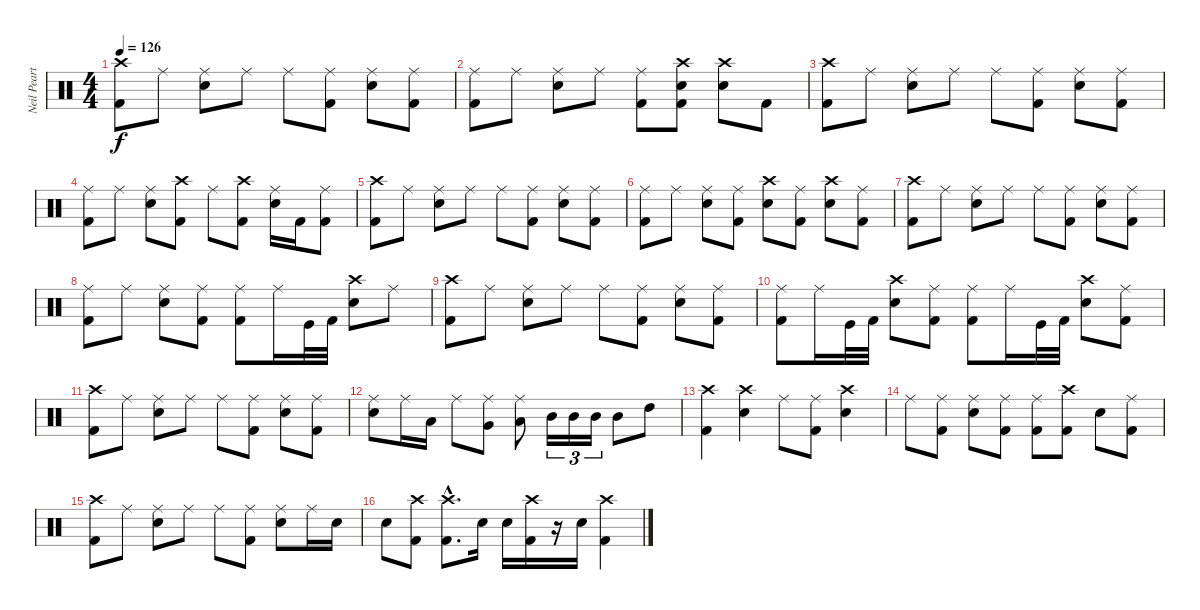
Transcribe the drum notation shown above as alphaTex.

\track ("Neil Peart" "Neil Peart") {instrument percussion}
\staff {score}
\articulation defaults
\ts (4 4)
\tempo 126
\clef neutral
\ks c
("Crash high (hit)" "Kick (hit) 2").8{dy f} "Ride (middle)".8 ("Electric Snare (hit)" "Ride (middle)").8 "Ride (middle)".8 "Ride (middle)".8 ("Ride (middle)" "Kick (hit) 2").8 ("Electric Snare (hit)" "Ride (middle)").8 ("Ride (middle)" "Kick (hit) 2").8 |
("Ride (middle)" "Kick (hit) 2").8 "Ride (middle)".8 ("Electric Snare (hit)" "Ride (middle)").8 "Ride (middle)".8 ("Ride (middle)" "Kick (hit) 2").8 ("Electric Snare (hit)" "Crash high (hit)" "Kick (hit) 2").8 ("Electric Snare (hit)" "Crash high (hit)").8 "Kick (hit) 2".8 |
("Crash high (hit)" "Kick (hit) 2").8 "Ride (middle)".8 ("Electric Snare (hit)" "Ride (middle)").8 "Ride (middle)".8 "Ride (middle)".8 ("Ride (middle)" "Kick (hit) 2").8 ("Electric Snare (hit)" "Ride (middle)").8 ("Ride (middle)" "Kick (hit) 2").8 |
("Ride (middle)" "Kick (hit) 2").8 "Ride (middle)".8 ("Electric Snare (hit)" "Ride (middle)").8 ("Crash high (hit)" "Kick (hit) 2").8 "Ride (middle)".8 ("Crash high (hit)" "Kick (hit) 2").8 ("Electric Snare (hit)" "Ride (middle)").16 "Kick (hit) 2".16 ("Ride (middle)" "Kick (hit) 2").8 |
("Crash high (hit)" "Kick (hit) 2").8 "Ride (middle)".8 ("Electric Snare (hit)" "Ride (middle)").8 "Ride (middle)".8 "Ride (middle)".8 ("Ride (middle)" "Kick (hit) 2").8 ("Electric Snare (hit)" "Ride (middle)").8 ("Ride (middle)" "Kick (hit) 2").8 |
("Ride (middle)" "Kick (hit) 2").8 "Ride (middle)".8 ("Electric Snare (hit)" "Ride (middle)").8 ("Ride (middle)" "Kick (hit) 2").8 ("Electric Snare (hit)" "Crash high (hit)").8 ("Ride (middle)" "Kick (hit) 2").8 ("Electric Snare (hit)" "Crash high (hit)").8 ("Ride (middle)" "Kick (hit) 2").8 |
("Crash high (hit)" "Kick (hit) 2").8 "Ride (middle)".8 ("Electric Snare (hit)" "Ride (middle)").8 "Ride (middle)".8 "Ride (middle)".8 ("Ride (middle)" "Kick (hit) 2").8 ("Electric Snare (hit)" "Ride (middle)").8 ("Ride (middle)" "Kick (hit) 2").8 |
("Ride (middle)" "Kick (hit) 2").8 "Ride (middle)".8 ("Electric Snare (hit)" "Ride (middle)").8 ("Ride (middle)" "Kick (hit) 2").8 ("Ride (middle)" "Kick (hit) 2").8 "Ride (middle)".16 "Kick (hit)".32 "Kick (hit) 2".32 ("Electric Snare (hit)" "Crash high (hit)").8 "Ride (middle)".8 |
("Crash high (hit)" "Kick (hit) 2").8 "Ride (middle)".8 ("Electric Snare (hit)" "Ride (middle)").8 "Ride (middle)".8 "Ride (middle)".8 ("Ride (middle)" "Kick (hit) 2").8 ("Electric Snare (hit)" "Ride (middle)").8 ("Ride (middle)" "Kick (hit) 2").8 |
("Ride (middle)" "Kick (hit) 2").8 "Ride (middle)".16 "Kick (hit)".32 "Kick (hit) 2".32 ("Electric Snare (hit)" "Crash high (hit)").8 ("Ride (middle)" "Kick (hit) 2").8 ("Ride (middle)" "Kick (hit) 2").8 "Ride (middle)".16 "Kick (hit)".32 "Kick (hit) 2".32 ("Electric Snare (hit)" "Crash high (hit)").8 ("Ride (middle)" "Kick (hit) 2").8 |
("Crash high (hit)" "Kick (hit) 2").8 "Ride (middle)".8 ("Electric Snare (hit)" "Ride (middle)").8 "Ride (middle)".8 "Ride (middle)".8 ("Ride (middle)" "Kick (hit) 2").8 ("Electric Snare (hit)" "Ride (middle)").8 ("Ride (middle)" "Kick (hit) 2").8 |
("Electric Snare (hit)" "Ride (middle)").8 "Ride (middle)".16 "Low Floor Tom (hit)".16 "Ride (middle)".8 ("Ride (middle)" "Very Low Tom (hit)").8 ("Ride (middle)" "Low Tom (hit)").8 "Mid Tom (hit)".16{tu (3 2)} "Mid Tom (hit)".16{tu (3 2)} "Mid Tom (hit)".16{tu (3 2)} "Mid Tom (hit)".8 "High Tom (hit)".8 |
("Crash high (hit)" "Kick (hit) 2").4 ("Electric Snare (hit)" "Crash high (hit)").4 "Ride (middle)".8 ("Ride (middle)" "Kick (hit) 2").8 ("Electric Snare (hit)" "Crash high (hit)").4 |
"Ride (middle)".8 ("Ride (middle)" "Kick (hit) 2").8 ("Electric Snare (hit)" "Ride (middle)").8 ("Ride (middle)" "Kick (hit) 2").8 ("Ride (middle)" "Kick (hit) 2").8 ("Crash high (hit)" "Kick (hit) 2").8 "Electric Snare (hit)".8 ("Ride (middle)" "Kick (hit) 2").8 |
("Crash high (hit)" "Kick (hit) 2").8 "Ride (middle)".8 ("Electric Snare (hit)" "Ride (middle)").8 "Ride (middle)".8 "Ride (middle)".8 ("Ride (middle)" "Kick (hit) 2").8 ("Electric Snare (hit)" "Ride (middle)").8 "Ride (middle)".16 "Electric Snare (hit)".16 |
"Electric Snare (hit)".8 ("Crash high (hit)" "Kick (hit) 2").8 ("Crash high (hit)"{hac} "Kick (hit) 2"{hac}).8{d} "Electric Snare (hit)".16 "Electric Snare (hit)".16 ("Crash high (hit)" "Kick (hit) 2").16 r.16 "Electric Snare (hit)".16 ("Crash high (hit)" "Kick (hit) 2").4
